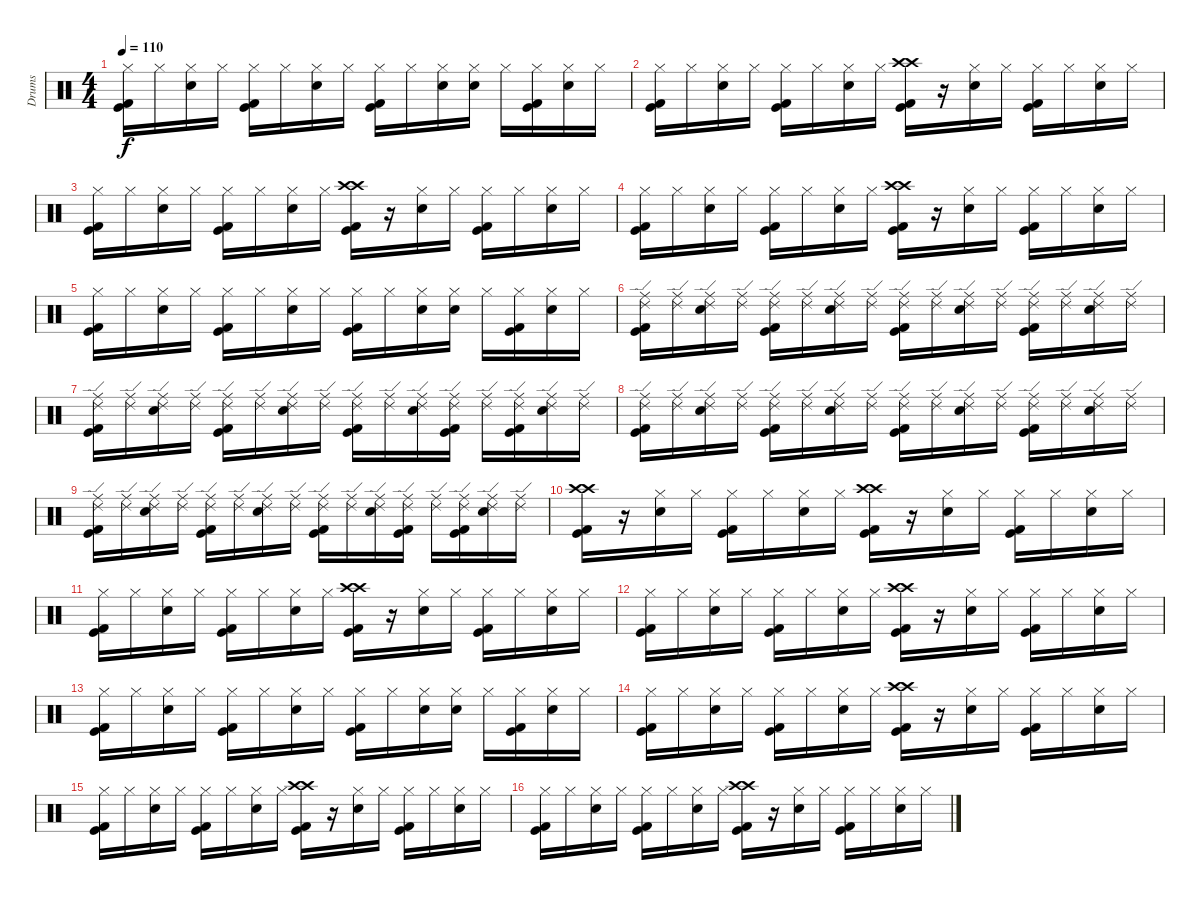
\track ("Drums" "Drums") {instrument percussion}
\staff {score}
\articulation defaults
\ts (4 4)
\tempo 110
\clef neutral
\ks c
("Hi-Hat (closed)" "Kick (hit) 2" "Kick (hit)").16{dy f} "Hi-Hat (closed)".16 ("Hi-Hat (closed)" "Snare (hit) 2").16 "Hi-Hat (closed)".16 ("Hi-Hat (closed)" "Kick (hit) 2" "Kick (hit)").16 "Hi-Hat (closed)".16 ("Hi-Hat (closed)" "Snare (hit) 2").16 "Hi-Hat (closed)".16 ("Hi-Hat (closed)" "Kick (hit) 2" "Kick (hit)").16 "Hi-Hat (closed)".16 ("Hi-Hat (closed)" "Snare (hit) 2").16 ("Hi-Hat (closed)" "Snare (hit) 2").16 "Hi-Hat (closed)".16 ("Hi-Hat (closed)" "Kick (hit) 2" "Kick (hit)").16 ("Hi-Hat (closed)" "Snare (hit) 2").16 "Hi-Hat (closed)".16 |
("Hi-Hat (closed)" "Kick (hit) 2" "Kick (hit)").16 "Hi-Hat (closed)".16 ("Hi-Hat (closed)" "Snare (hit) 2").16 "Hi-Hat (closed)".16 ("Hi-Hat (closed)" "Kick (hit) 2" "Kick (hit)").16 "Hi-Hat (closed)".16 ("Hi-Hat (closed)" "Snare (hit) 2").16 "Hi-Hat (closed)".16 ("Crash high (hit)" "Crash high (hit)" "Kick (hit) 2" "Kick (hit)").16 r.16 ("Hi-Hat (closed)" "Snare (hit) 2").16 "Hi-Hat (closed)".16 ("Hi-Hat (closed)" "Kick (hit) 2" "Kick (hit)").16 "Hi-Hat (closed)".16 ("Hi-Hat (closed)" "Snare (hit) 2").16 "Hi-Hat (closed)".16 |
("Hi-Hat (closed)" "Kick (hit) 2" "Kick (hit)").16 "Hi-Hat (closed)".16 ("Hi-Hat (closed)" "Snare (hit) 2").16 "Hi-Hat (closed)".16 ("Hi-Hat (closed)" "Kick (hit) 2" "Kick (hit)").16 "Hi-Hat (closed)".16 ("Hi-Hat (closed)" "Snare (hit) 2").16 "Hi-Hat (closed)".16 ("Crash high (hit)" "Crash high (hit)" "Kick (hit) 2" "Kick (hit)").16 r.16 ("Hi-Hat (closed)" "Snare (hit) 2").16 "Hi-Hat (closed)".16 ("Hi-Hat (closed)" "Kick (hit) 2" "Kick (hit)").16 "Hi-Hat (closed)".16 ("Hi-Hat (closed)" "Snare (hit) 2").16 "Hi-Hat (closed)".16 |
("Hi-Hat (closed)" "Kick (hit) 2" "Kick (hit)").16 "Hi-Hat (closed)".16 ("Hi-Hat (closed)" "Snare (hit) 2").16 "Hi-Hat (closed)".16 ("Hi-Hat (closed)" "Kick (hit) 2" "Kick (hit)").16 "Hi-Hat (closed)".16 ("Hi-Hat (closed)" "Snare (hit) 2").16 "Hi-Hat (closed)".16 ("Crash high (hit)" "Crash high (hit)" "Kick (hit) 2" "Kick (hit)").16 r.16 ("Hi-Hat (closed)" "Snare (hit) 2").16 "Hi-Hat (closed)".16 ("Hi-Hat (closed)" "Kick (hit) 2" "Kick (hit)").16 "Hi-Hat (closed)".16 ("Hi-Hat (closed)" "Snare (hit) 2").16 "Hi-Hat (closed)".16 |
("Hi-Hat (closed)" "Kick (hit) 2" "Kick (hit)").16 "Hi-Hat (closed)".16 ("Hi-Hat (closed)" "Snare (hit) 2").16 "Hi-Hat (closed)".16 ("Hi-Hat (closed)" "Kick (hit) 2" "Kick (hit)").16 "Hi-Hat (closed)".16 ("Hi-Hat (closed)" "Snare (hit) 2").16 "Hi-Hat (closed)".16 ("Hi-Hat (closed)" "Kick (hit) 2" "Kick (hit)").16 "Hi-Hat (closed)".16 ("Hi-Hat (closed)" "Snare (hit) 2").16 ("Hi-Hat (closed)" "Snare (hit) 2").16 "Hi-Hat (closed)".16 ("Hi-Hat (closed)" "Kick (hit) 2" "Kick (hit)").16 ("Hi-Hat (closed)" "Snare (hit) 2").16 "Hi-Hat (closed)".16 |
("Ride (middle)" "Ride (edge) 2" "Kick (hit) 2" "Kick (hit)").16 ("Ride (middle)" "Ride (edge) 2").16 ("Ride (middle)" "Ride (edge) 2" "Snare (hit) 2").16 ("Ride (middle)" "Ride (edge) 2").16 ("Ride (middle)" "Ride (edge) 2" "Kick (hit) 2" "Kick (hit)").16 ("Ride (middle)" "Ride (edge) 2").16 ("Ride (middle)" "Ride (edge) 2" "Snare (hit) 2").16 ("Ride (middle)" "Ride (edge) 2").16 ("Ride (middle)" "Ride (edge) 2" "Kick (hit) 2" "Kick (hit)").16 ("Ride (middle)" "Ride (edge) 2").16 ("Ride (middle)" "Ride (edge) 2" "Snare (hit) 2").16 ("Ride (middle)" "Ride (edge) 2").16 ("Ride (middle)" "Ride (edge) 2" "Kick (hit) 2" "Kick (hit)").16 ("Ride (middle)" "Ride (edge) 2").16 ("Ride (middle)" "Ride (edge) 2" "Snare (hit) 2").16 ("Ride (middle)" "Ride (edge) 2").16 |
("Ride (middle)" "Ride (edge) 2" "Kick (hit) 2" "Kick (hit)").16 ("Ride (middle)" "Ride (edge) 2").16 ("Ride (middle)" "Ride (edge) 2" "Snare (hit) 2").16 ("Ride (middle)" "Ride (edge) 2").16 ("Ride (middle)" "Ride (edge) 2" "Kick (hit) 2" "Kick (hit)").16 ("Ride (middle)" "Ride (edge) 2").16 ("Ride (middle)" "Ride (edge) 2" "Snare (hit) 2").16 ("Ride (middle)" "Ride (edge) 2").16 ("Ride (middle)" "Ride (edge) 2" "Kick (hit) 2" "Kick (hit)").16 ("Ride (middle)" "Ride (edge) 2").16 ("Ride (middle)" "Ride (edge) 2" "Snare (hit) 2").16 ("Ride (middle)" "Ride (edge) 2" "Kick (hit) 2" "Kick (hit)").16 ("Ride (middle)" "Ride (edge) 2").16 ("Ride (middle)" "Ride (edge) 2" "Kick (hit) 2" "Kick (hit)").16 ("Ride (middle)" "Ride (edge) 2" "Snare (hit) 2").16 ("Ride (middle)" "Ride (edge) 2").16 |
("Ride (middle)" "Ride (edge) 2" "Kick (hit) 2" "Kick (hit)").16 ("Ride (middle)" "Ride (edge) 2").16 ("Ride (middle)" "Ride (edge) 2" "Snare (hit) 2").16 ("Ride (middle)" "Ride (edge) 2").16 ("Ride (middle)" "Ride (edge) 2" "Kick (hit) 2" "Kick (hit)").16 ("Ride (middle)" "Ride (edge) 2").16 ("Ride (middle)" "Ride (edge) 2" "Snare (hit) 2").16 ("Ride (middle)" "Ride (edge) 2").16 ("Ride (middle)" "Ride (edge) 2" "Kick (hit) 2" "Kick (hit)").16 ("Ride (middle)" "Ride (edge) 2").16 ("Ride (middle)" "Ride (edge) 2" "Snare (hit) 2").16 ("Ride (middle)" "Ride (edge) 2").16 ("Ride (middle)" "Ride (edge) 2" "Kick (hit) 2" "Kick (hit)").16 ("Ride (middle)" "Ride (edge) 2").16 ("Ride (middle)" "Ride (edge) 2" "Snare (hit) 2").16 ("Ride (middle)" "Ride (edge) 2").16 |
("Ride (middle)" "Ride (edge) 2" "Kick (hit) 2" "Kick (hit)").16 ("Ride (middle)" "Ride (edge) 2").16 ("Ride (middle)" "Ride (edge) 2" "Snare (hit) 2").16 ("Ride (middle)" "Ride (edge) 2").16 ("Ride (middle)" "Ride (edge) 2" "Kick (hit) 2" "Kick (hit)").16 ("Ride (middle)" "Ride (edge) 2").16 ("Ride (middle)" "Ride (edge) 2" "Snare (hit) 2").16 ("Ride (middle)" "Ride (edge) 2").16 ("Ride (middle)" "Ride (edge) 2" "Kick (hit) 2" "Kick (hit)").16 ("Ride (middle)" "Ride (edge) 2").16 ("Ride (middle)" "Ride (edge) 2" "Snare (hit) 2").16 ("Ride (middle)" "Ride (edge) 2" "Kick (hit) 2" "Kick (hit)").16 ("Ride (middle)" "Ride (edge) 2").16 ("Ride (middle)" "Ride (edge) 2" "Kick (hit) 2" "Kick (hit)").16 ("Ride (middle)" "Ride (edge) 2" "Snare (hit) 2").16 ("Ride (middle)" "Ride (edge) 2").16 |
("Crash high (hit)" "Crash high (hit)" "Kick (hit) 2" "Kick (hit)").16 r.16 ("Hi-Hat (closed)" "Snare (hit) 2").16 "Hi-Hat (closed)".16 ("Hi-Hat (closed)" "Kick (hit) 2" "Kick (hit)").16 "Hi-Hat (closed)".16 ("Hi-Hat (closed)" "Snare (hit) 2").16 "Hi-Hat (closed)".16 ("Crash high (hit)" "Crash high (hit)" "Kick (hit) 2" "Kick (hit)").16 r.16 ("Hi-Hat (closed)" "Snare (hit) 2").16 "Hi-Hat (closed)".16 ("Hi-Hat (closed)" "Kick (hit) 2" "Kick (hit)").16 "Hi-Hat (closed)".16 ("Hi-Hat (closed)" "Snare (hit) 2").16 "Hi-Hat (closed)".16 |
("Hi-Hat (closed)" "Kick (hit) 2" "Kick (hit)").16 "Hi-Hat (closed)".16 ("Hi-Hat (closed)" "Snare (hit) 2").16 "Hi-Hat (closed)".16 ("Hi-Hat (closed)" "Kick (hit) 2" "Kick (hit)").16 "Hi-Hat (closed)".16 ("Hi-Hat (closed)" "Snare (hit) 2").16 "Hi-Hat (closed)".16 ("Crash high (hit)" "Crash high (hit)" "Kick (hit) 2" "Kick (hit)").16 r.16 ("Hi-Hat (closed)" "Snare (hit) 2").16 "Hi-Hat (closed)".16 ("Hi-Hat (closed)" "Kick (hit) 2" "Kick (hit)").16 "Hi-Hat (closed)".16 ("Hi-Hat (closed)" "Snare (hit) 2").16 "Hi-Hat (closed)".16 |
("Hi-Hat (closed)" "Kick (hit) 2" "Kick (hit)").16 "Hi-Hat (closed)".16 ("Hi-Hat (closed)" "Snare (hit) 2").16 "Hi-Hat (closed)".16 ("Hi-Hat (closed)" "Kick (hit) 2" "Kick (hit)").16 "Hi-Hat (closed)".16 ("Hi-Hat (closed)" "Snare (hit) 2").16 "Hi-Hat (closed)".16 ("Crash high (hit)" "Crash high (hit)" "Kick (hit) 2" "Kick (hit)").16 r.16 ("Hi-Hat (closed)" "Snare (hit) 2").16 "Hi-Hat (closed)".16 ("Hi-Hat (closed)" "Kick (hit) 2" "Kick (hit)").16 "Hi-Hat (closed)".16 ("Hi-Hat (closed)" "Snare (hit) 2").16 "Hi-Hat (closed)".16 |
("Hi-Hat (closed)" "Kick (hit) 2" "Kick (hit)").16 "Hi-Hat (closed)".16 ("Hi-Hat (closed)" "Snare (hit) 2").16 "Hi-Hat (closed)".16 ("Hi-Hat (closed)" "Kick (hit) 2" "Kick (hit)").16 "Hi-Hat (closed)".16 ("Hi-Hat (closed)" "Snare (hit) 2").16 "Hi-Hat (closed)".16 ("Hi-Hat (closed)" "Kick (hit) 2" "Kick (hit)").16 "Hi-Hat (closed)".16 ("Hi-Hat (closed)" "Snare (hit) 2").16 ("Hi-Hat (closed)" "Snare (hit) 2").16 "Hi-Hat (closed)".16 ("Hi-Hat (closed)" "Kick (hit) 2" "Kick (hit)").16 ("Hi-Hat (closed)" "Snare (hit) 2").16 "Hi-Hat (closed)".16 |
("Hi-Hat (closed)" "Kick (hit) 2" "Kick (hit)").16 "Hi-Hat (closed)".16 ("Hi-Hat (closed)" "Snare (hit) 2").16 "Hi-Hat (closed)".16 ("Hi-Hat (closed)" "Kick (hit) 2" "Kick (hit)").16 "Hi-Hat (closed)".16 ("Hi-Hat (closed)" "Snare (hit) 2").16 "Hi-Hat (closed)".16 ("Crash high (hit)" "Crash high (hit)" "Kick (hit) 2" "Kick (hit)").16 r.16 ("Hi-Hat (closed)" "Snare (hit) 2").16 "Hi-Hat (closed)".16 ("Hi-Hat (closed)" "Kick (hit) 2" "Kick (hit)").16 "Hi-Hat (closed)".16 ("Hi-Hat (closed)" "Snare (hit) 2").16 "Hi-Hat (closed)".16 |
("Hi-Hat (closed)" "Kick (hit) 2" "Kick (hit)").16 "Hi-Hat (closed)".16 ("Hi-Hat (closed)" "Snare (hit) 2").16 "Hi-Hat (closed)".16 ("Hi-Hat (closed)" "Kick (hit) 2" "Kick (hit)").16 "Hi-Hat (closed)".16 ("Hi-Hat (closed)" "Snare (hit) 2").16 "Hi-Hat (closed)".16 ("Crash high (hit)" "Crash high (hit)" "Kick (hit) 2" "Kick (hit)").16 r.16 ("Hi-Hat (closed)" "Snare (hit) 2").16 "Hi-Hat (closed)".16 ("Hi-Hat (closed)" "Kick (hit) 2" "Kick (hit)").16 "Hi-Hat (closed)".16 ("Hi-Hat (closed)" "Snare (hit) 2").16 "Hi-Hat (closed)".16 |
("Hi-Hat (closed)" "Kick (hit) 2" "Kick (hit)").16 "Hi-Hat (closed)".16 ("Hi-Hat (closed)" "Snare (hit) 2").16 "Hi-Hat (closed)".16 ("Hi-Hat (closed)" "Kick (hit) 2" "Kick (hit)").16 "Hi-Hat (closed)".16 ("Hi-Hat (closed)" "Snare (hit) 2").16 "Hi-Hat (closed)".16 ("Crash high (hit)" "Crash high (hit)" "Kick (hit) 2" "Kick (hit)").16 r.16 ("Hi-Hat (closed)" "Snare (hit) 2").16 "Hi-Hat (closed)".16 ("Hi-Hat (closed)" "Kick (hit) 2" "Kick (hit)").16 "Hi-Hat (closed)".16 ("Hi-Hat (closed)" "Snare (hit) 2").16 "Hi-Hat (closed)".16
